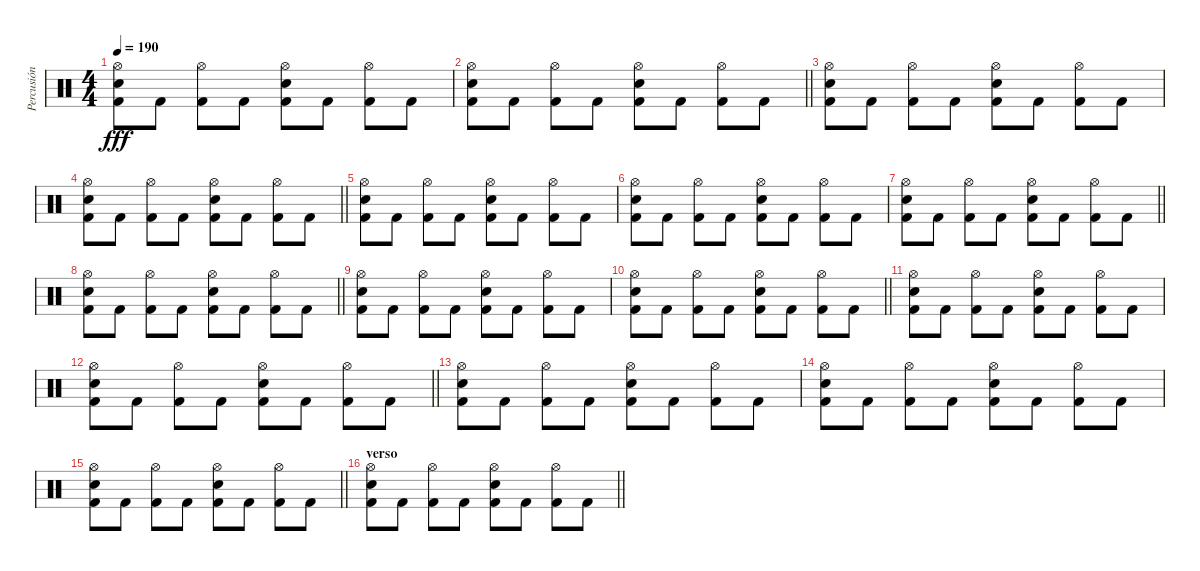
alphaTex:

\track ("Percusión" "Percusión") {instrument percussion}
\staff {score}
\articulation defaults
\ts (4 4)
\tempo 190
\clef neutral
\ks c
("Hi-Hat (open)" "Electric Snare (hit)" "Kick (hit) 2").8{dy fff} "Kick (hit) 2".8 ("Hi-Hat (open)" "Kick (hit) 2").8 "Kick (hit) 2".8 ("Hi-Hat (open)" "Electric Snare (hit)" "Kick (hit) 2").8 "Kick (hit) 2".8 ("Hi-Hat (open)" "Kick (hit) 2").8 "Kick (hit) 2".8 |
\barLineRight lightlight
("Hi-Hat (open)" "Electric Snare (hit)" "Kick (hit) 2").8 "Kick (hit) 2".8 ("Hi-Hat (open)" "Kick (hit) 2").8 "Kick (hit) 2".8 ("Hi-Hat (open)" "Electric Snare (hit)" "Kick (hit) 2").8 "Kick (hit) 2".8 ("Hi-Hat (open)" "Kick (hit) 2").8 "Kick (hit) 2".8 |
("Hi-Hat (open)" "Electric Snare (hit)" "Kick (hit) 2").8 "Kick (hit) 2".8 ("Hi-Hat (open)" "Kick (hit) 2").8 "Kick (hit) 2".8 ("Hi-Hat (open)" "Electric Snare (hit)" "Kick (hit) 2").8 "Kick (hit) 2".8 ("Hi-Hat (open)" "Kick (hit) 2").8 "Kick (hit) 2".8 |
\barLineRight lightlight
("Hi-Hat (open)" "Electric Snare (hit)" "Kick (hit) 2").8 "Kick (hit) 2".8 ("Hi-Hat (open)" "Kick (hit) 2").8 "Kick (hit) 2".8 ("Hi-Hat (open)" "Electric Snare (hit)" "Kick (hit) 2").8 "Kick (hit) 2".8 ("Hi-Hat (open)" "Kick (hit) 2").8 "Kick (hit) 2".8 |
("Hi-Hat (open)" "Electric Snare (hit)" "Kick (hit) 2").8 "Kick (hit) 2".8 ("Hi-Hat (open)" "Kick (hit) 2").8 "Kick (hit) 2".8 ("Hi-Hat (open)" "Electric Snare (hit)" "Kick (hit) 2").8 "Kick (hit) 2".8 ("Hi-Hat (open)" "Kick (hit) 2").8 "Kick (hit) 2".8 |
("Hi-Hat (open)" "Electric Snare (hit)" "Kick (hit) 2").8 "Kick (hit) 2".8 ("Hi-Hat (open)" "Kick (hit) 2").8 "Kick (hit) 2".8 ("Hi-Hat (open)" "Electric Snare (hit)" "Kick (hit) 2").8 "Kick (hit) 2".8 ("Hi-Hat (open)" "Kick (hit) 2").8 "Kick (hit) 2".8 |
\barLineRight lightlight
("Hi-Hat (open)" "Electric Snare (hit)" "Kick (hit) 2").8 "Kick (hit) 2".8 ("Hi-Hat (open)" "Kick (hit) 2").8 "Kick (hit) 2".8 ("Hi-Hat (open)" "Electric Snare (hit)" "Kick (hit) 2").8 "Kick (hit) 2".8 ("Hi-Hat (open)" "Kick (hit) 2").8 "Kick (hit) 2".8 |
\barLineRight lightlight
("Hi-Hat (open)" "Electric Snare (hit)" "Kick (hit) 2").8 "Kick (hit) 2".8 ("Hi-Hat (open)" "Kick (hit) 2").8 "Kick (hit) 2".8 ("Hi-Hat (open)" "Electric Snare (hit)" "Kick (hit) 2").8 "Kick (hit) 2".8 ("Hi-Hat (open)" "Kick (hit) 2").8 "Kick (hit) 2".8 |
("Hi-Hat (open)" "Electric Snare (hit)" "Kick (hit) 2").8 "Kick (hit) 2".8 ("Hi-Hat (open)" "Kick (hit) 2").8 "Kick (hit) 2".8 ("Hi-Hat (open)" "Electric Snare (hit)" "Kick (hit) 2").8 "Kick (hit) 2".8 ("Hi-Hat (open)" "Kick (hit) 2").8 "Kick (hit) 2".8 |
\barLineRight lightlight
("Hi-Hat (open)" "Electric Snare (hit)" "Kick (hit) 2").8 "Kick (hit) 2".8 ("Hi-Hat (open)" "Kick (hit) 2").8 "Kick (hit) 2".8 ("Hi-Hat (open)" "Electric Snare (hit)" "Kick (hit) 2").8 "Kick (hit) 2".8 ("Hi-Hat (open)" "Kick (hit) 2").8 "Kick (hit) 2".8 |
("Hi-Hat (open)" "Electric Snare (hit)" "Kick (hit) 2").8 "Kick (hit) 2".8 ("Hi-Hat (open)" "Kick (hit) 2").8 "Kick (hit) 2".8 ("Hi-Hat (open)" "Electric Snare (hit)" "Kick (hit) 2").8 "Kick (hit) 2".8 ("Hi-Hat (open)" "Kick (hit) 2").8 "Kick (hit) 2".8 |
\barLineRight lightlight
("Hi-Hat (open)" "Electric Snare (hit)" "Kick (hit) 2").8 "Kick (hit) 2".8 ("Hi-Hat (open)" "Kick (hit) 2").8 "Kick (hit) 2".8 ("Hi-Hat (open)" "Electric Snare (hit)" "Kick (hit) 2").8 "Kick (hit) 2".8 ("Hi-Hat (open)" "Kick (hit) 2").8 "Kick (hit) 2".8 |
("Hi-Hat (open)" "Electric Snare (hit)" "Kick (hit) 2").8 "Kick (hit) 2".8 ("Hi-Hat (open)" "Kick (hit) 2").8 "Kick (hit) 2".8 ("Hi-Hat (open)" "Electric Snare (hit)" "Kick (hit) 2").8 "Kick (hit) 2".8 ("Hi-Hat (open)" "Kick (hit) 2").8 "Kick (hit) 2".8 |
("Hi-Hat (open)" "Electric Snare (hit)" "Kick (hit) 2").8 "Kick (hit) 2".8 ("Hi-Hat (open)" "Kick (hit) 2").8 "Kick (hit) 2".8 ("Hi-Hat (open)" "Electric Snare (hit)" "Kick (hit) 2").8 "Kick (hit) 2".8 ("Hi-Hat (open)" "Kick (hit) 2").8 "Kick (hit) 2".8 |
\barLineRight lightlight
("Hi-Hat (open)" "Electric Snare (hit)" "Kick (hit) 2").8 "Kick (hit) 2".8 ("Hi-Hat (open)" "Kick (hit) 2").8 "Kick (hit) 2".8 ("Hi-Hat (open)" "Electric Snare (hit)" "Kick (hit) 2").8 "Kick (hit) 2".8 ("Hi-Hat (open)" "Kick (hit) 2").8 "Kick (hit) 2".8 |
\section ("" "verso")
\barLineRight lightlight
("Hi-Hat (open)" "Electric Snare (hit)" "Kick (hit) 2").8 "Kick (hit) 2".8 ("Hi-Hat (open)" "Kick (hit) 2").8 "Kick (hit) 2".8 ("Hi-Hat (open)" "Electric Snare (hit)" "Kick (hit) 2").8 "Kick (hit) 2".8 ("Hi-Hat (open)" "Kick (hit) 2").8 "Kick (hit) 2".8
